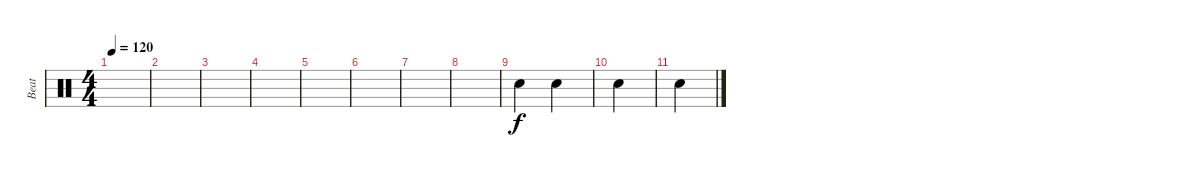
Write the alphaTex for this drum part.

\track ("Beat" "Beat") {instrument percussion}
\staff {score}
\articulation defaults
\ts (4 4)
\tempo 120
\clef neutral
\ks c
|
|
|
|
|
|
|
|
"Snare (hit) 2".4 "Snare (hit) 2".4 |
"Snare (hit) 2".4 |
"Snare (hit) 2".4
